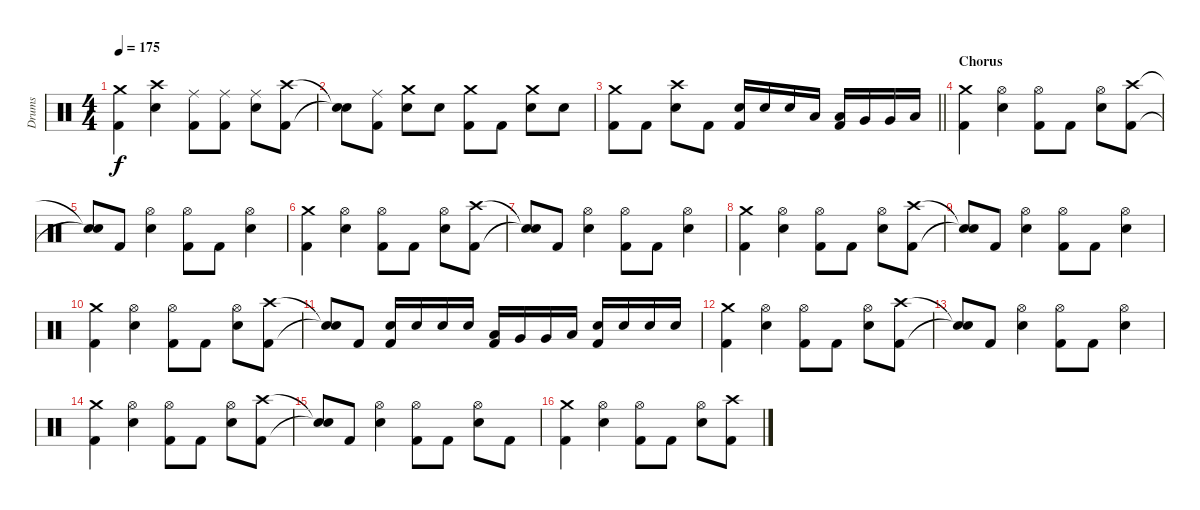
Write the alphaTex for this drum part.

\track ("Drums" "Drums") {instrument percussion}
\staff {score}
\articulation defaults
\ts (4 4)
\tempo 175
\clef neutral
\ks c
("Crash medium (hit)" "Kick (hit) 2").4{dy f} ("Crash high (hit)" "Electric Snare (hit)").4 ("Ride (middle)" "Kick (hit) 2").8 ("Ride (middle)" "Kick (hit) 2").8 ("Ride (middle)" "Electric Snare (hit)").8 ("Crash high (hit)" "Kick (hit) 2").8 |
("Snare (hit)"{t} "Snare (hit)"{t}).8 ("Ride (middle)" "Kick (hit) 2").8 ("Crash medium (hit)" "Electric Snare (hit)").8 "Electric Snare (hit)".8 ("Crash medium (hit)" "Kick (hit) 2").8 "Kick (hit) 2".8 ("Crash medium (hit)" "Electric Snare (hit)").8 "Electric Snare (hit)".8 |
\barLineRight lightlight
("Crash medium (hit)" "Kick (hit) 2").8 "Kick (hit) 2".8 ("Crash high (hit)" "Electric Snare (hit)").8 "Kick (hit) 2".8 ("Electric Snare (hit)" "Kick (hit) 2").16 "Electric Snare (hit)".16 "Electric Snare (hit)".16 "Low Tom (hit)".16 ("Low Tom (hit)" "Kick (hit) 2").16 "Very Low Tom (hit)".16 "Very Low Tom (hit)".16 "Low Floor Tom (hit)".16 |
\section ("" "Chorus")
("Crash medium (hit)" "Kick (hit) 2").4 ("Hi-Hat (open)" "Electric Snare (hit)").4 ("Hi-Hat (open)" "Kick (hit) 2").8 "Kick (hit) 2".8 ("Hi-Hat (open)" "Electric Snare (hit)").8 ("Crash high (hit)" "Kick (hit) 2").8 |
("Snare (hit)"{t} "Snare (hit)"{t}).8 "Kick (hit) 2".8 ("Hi-Hat (open)" "Electric Snare (hit)").4 ("Hi-Hat (open)" "Kick (hit) 2").8 "Kick (hit) 2".8 ("Hi-Hat (open)" "Electric Snare (hit)").4 |
("Crash medium (hit)" "Kick (hit) 2").4 ("Hi-Hat (open)" "Electric Snare (hit)").4 ("Hi-Hat (open)" "Kick (hit) 2").8 "Kick (hit) 2".8 ("Hi-Hat (open)" "Electric Snare (hit)").8 ("Crash high (hit)" "Kick (hit) 2").8 |
("Snare (hit)"{t} "Snare (hit)"{t}).8 "Kick (hit) 2".8 ("Hi-Hat (open)" "Electric Snare (hit)").4 ("Hi-Hat (open)" "Kick (hit) 2").8 "Kick (hit) 2".8 ("Hi-Hat (open)" "Electric Snare (hit)").4 |
("Crash medium (hit)" "Kick (hit) 2").4 ("Hi-Hat (open)" "Electric Snare (hit)").4 ("Hi-Hat (open)" "Kick (hit) 2").8 "Kick (hit) 2".8 ("Hi-Hat (open)" "Electric Snare (hit)").8 ("Crash high (hit)" "Kick (hit) 2").8 |
("Snare (hit)"{t} "Snare (hit)"{t}).8 "Kick (hit) 2".8 ("Hi-Hat (open)" "Electric Snare (hit)").4 ("Hi-Hat (open)" "Kick (hit) 2").8 "Kick (hit) 2".8 ("Hi-Hat (open)" "Electric Snare (hit)").4 |
("Crash medium (hit)" "Kick (hit) 2").4 ("Hi-Hat (open)" "Electric Snare (hit)").4 ("Hi-Hat (open)" "Kick (hit) 2").8 "Kick (hit) 2".8 ("Hi-Hat (open)" "Electric Snare (hit)").8 ("Crash high (hit)" "Kick (hit) 2").8 |
("Snare (hit)"{t} "Snare (hit)"{t}).8 "Kick (hit) 2".8 ("Electric Snare (hit)" "Kick (hit) 2").16 "Electric Snare (hit)".16 "Electric Snare (hit)".16 "Electric Snare (hit)".16 ("Low Tom (hit)" "Kick (hit) 2").16 "Very Low Tom (hit)".16 "Very Low Tom (hit)".16 "Low Floor Tom (hit)".16 ("Electric Snare (hit)" "Kick (hit) 2").16 "Electric Snare (hit)".16 "Electric Snare (hit)".16 "Electric Snare (hit)".16 |
("Crash medium (hit)" "Kick (hit) 2").4 ("Hi-Hat (open)" "Electric Snare (hit)").4 ("Hi-Hat (open)" "Kick (hit) 2").8 "Kick (hit) 2".8 ("Hi-Hat (open)" "Electric Snare (hit)").8 ("Crash high (hit)" "Kick (hit) 2").8 |
("Snare (hit)"{t} "Snare (hit)"{t}).8 "Kick (hit) 2".8 ("Hi-Hat (open)" "Electric Snare (hit)").4 ("Hi-Hat (open)" "Kick (hit) 2").8 "Kick (hit) 2".8 ("Hi-Hat (open)" "Electric Snare (hit)").4 |
("Crash medium (hit)" "Kick (hit) 2").4 ("Hi-Hat (open)" "Electric Snare (hit)").4 ("Hi-Hat (open)" "Kick (hit) 2").8 "Kick (hit) 2".8 ("Hi-Hat (open)" "Electric Snare (hit)").8 ("Crash high (hit)" "Kick (hit) 2").8 |
("Snare (hit)"{t} "Snare (hit)"{t}).8 "Kick (hit) 2".8 ("Hi-Hat (open)" "Electric Snare (hit)").4 ("Hi-Hat (open)" "Kick (hit) 2").8 "Kick (hit) 2".8 ("Hi-Hat (open)" "Electric Snare (hit)").8 "Kick (hit) 2".8 |
("Crash medium (hit)" "Kick (hit) 2").4 ("Hi-Hat (open)" "Electric Snare (hit)").4 ("Hi-Hat (open)" "Kick (hit) 2").8 "Kick (hit) 2".8 ("Hi-Hat (open)" "Electric Snare (hit)").8 ("Crash high (hit)" "Kick (hit) 2").8
